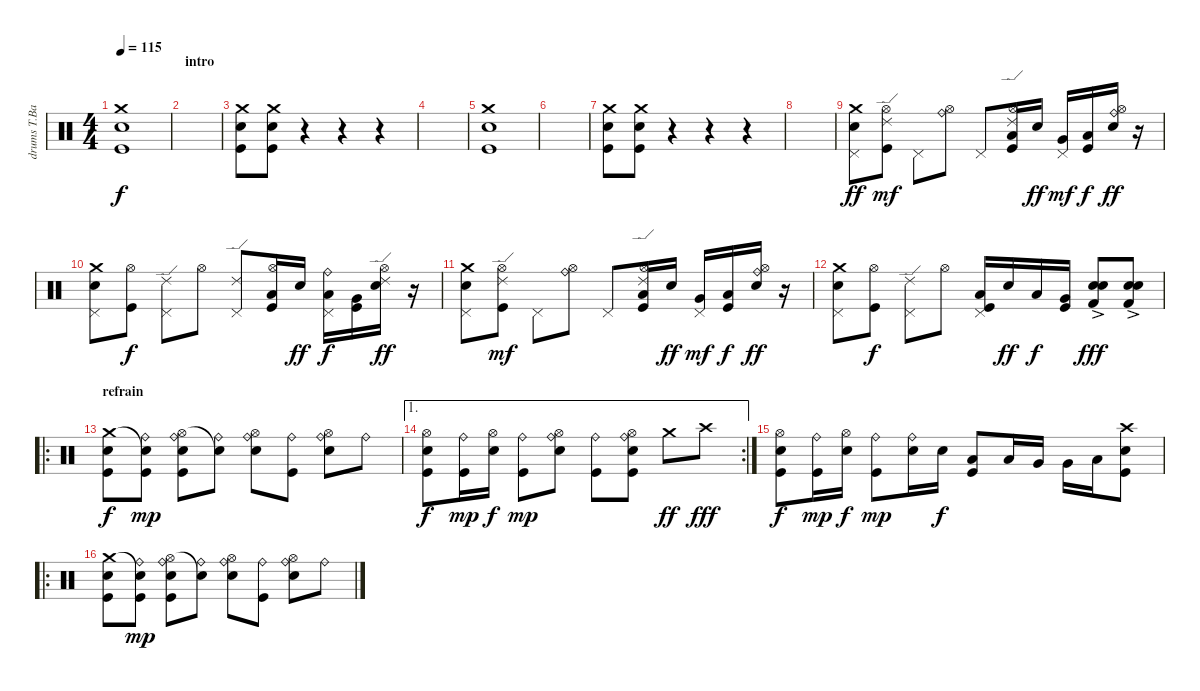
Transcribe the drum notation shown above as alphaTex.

\track ("drums T.Barker" "drums T.Ba") {instrument percussion}
\staff {score}
\articulation defaults
\ts (4 4)
\tempo 115
\clef neutral
\ks c
("Crash medium (hit)" "Electric Snare (hit)" "Kick (hit)").1{dy f} |
\section ("" "intro")
|
("Crash medium (hit)" "Electric Snare (hit)" "Kick (hit)").8 ("Crash medium (hit)" "Electric Snare (hit)" "Kick (hit)").8 r.4 r.4 r.4 |
|
("Crash medium (hit)" "Electric Snare (hit)" "Kick (hit)").1 |
|
("Crash medium (hit)" "Electric Snare (hit)" "Kick (hit)").8 ("Crash medium (hit)" "Electric Snare (hit)" "Kick (hit)").8 r.4 r.4 r.4 |
|
("Crash medium (hit)" "Pedal Hi-Hat (hit)" "Electric Snare (hit)").8{dy ff} ("Ride (edge) 2" "Hi-Hat (open)" "Kick (hit)").8{dy mf} "Pedal Hi-Hat (hit)".8 ("Ride (bell)" "Hi-Hat (open)").8 "Pedal Hi-Hat (hit)".8 ("Ride (edge) 2" "Hi-Hat (open)" "Low Tom (hit)" "Kick (hit)").16 "Electric Snare (hit)".16{dy ff} ("Pedal Hi-Hat (hit)" "Very Low Tom (hit)").16{dy mf} ("Low Tom (hit)" "Kick (hit)").16{dy f} ("Ride (bell)" "Hi-Hat (open)" "Electric Snare (hit)").16{dy ff} r.16 |
("Crash medium (hit)" "Pedal Hi-Hat (hit)" "Electric Snare (hit)").8 ("Hi-Hat (open)" "Kick (hit)").8{dy f} ("Ride (edge) 2" "Pedal Hi-Hat (hit)").8 "Hi-Hat (open)".8 ("Ride (edge) 2" "Pedal Hi-Hat (hit)").8 ("Hi-Hat (open)" "Low Tom (hit)" "Kick (hit)").16 "Electric Snare (hit)".16{dy ff} ("Ride (bell)" "Pedal Hi-Hat (hit)" "Low Tom (hit)").16{dy f} ("Very Low Tom (hit)" "Kick (hit)").16 ("Ride (edge) 2" "Hi-Hat (open)" "Electric Snare (hit)").16{dy ff} r.16 |
("Crash medium (hit)" "Pedal Hi-Hat (hit)" "Electric Snare (hit)").8 ("Ride (edge) 2" "Hi-Hat (open)" "Kick (hit)").8{dy mf} "Pedal Hi-Hat (hit)".8 ("Ride (bell)" "Hi-Hat (open)").8 "Pedal Hi-Hat (hit)".8 ("Ride (edge) 2" "Hi-Hat (open)" "Low Tom (hit)" "Kick (hit)").16 "Electric Snare (hit)".16{dy ff} ("Pedal Hi-Hat (hit)" "Very Low Tom (hit)").16{dy mf} ("Low Tom (hit)" "Kick (hit)").16{dy f} ("Ride (bell)" "Hi-Hat (open)" "Electric Snare (hit)").16{dy ff} r.16 |
("Crash medium (hit)" "Pedal Hi-Hat (hit)" "Electric Snare (hit)").8 ("Hi-Hat (open)" "Kick (hit)").8{dy f} ("Ride (edge) 2" "Pedal Hi-Hat (hit)").8 "Hi-Hat (open)".8 ("Pedal Hi-Hat (hit)" "Low Tom (hit)" "Kick (hit)").16 "Electric Snare (hit)".16{dy ff} "Low Tom (hit)".16{dy f} ("Very Low Tom (hit)" "Kick (hit)").16 ("Electric Snare (hit)" "Electric Snare (hit)"{ac} "Kick (hit) 2"{ac}).8{dy fff} ("Electric Snare (hit)" "Electric Snare (hit)"{ac} "Kick (hit) 2"{ac}).8 |
\ro
\section ("" "refrain")
("Crash medium (hit)" "Electric Snare (hit)" "Kick (hit)").8{dy f} ("Snare (hit)"{t} "Ride (bell)" "Kick (hit)").8{dy mp} ("Hi-Hat (open)" "Ride (bell)" "Electric Snare (hit)" "Kick (hit)").8 ("Snare (hit)"{t} "Ride (bell)").8 ("Hi-Hat (open)" "Ride (bell)" "Electric Snare (hit)").8 ("Ride (bell)" "Kick (hit)").8 ("Hi-Hat (open)" "Ride (bell)" "Electric Snare (hit)").8 "Ride (bell)".8 |
\ae 1
\rc 2
("Hi-Hat (open)" "Electric Snare (hit)" "Kick (hit)").8{dy f} ("Ride (bell)" "Kick (hit)").16{dy mp} ("Hi-Hat (open)" "Electric Snare (hit)").16{dy f} ("Ride (bell)" "Kick (hit)").8{dy mp} ("Hi-Hat (open)" "Ride (bell)" "Electric Snare (hit)").8 ("Ride (bell)" "Kick (hit)").8 ("Hi-Hat (open)" "Ride (bell)" "Electric Snare (hit)" "Kick (hit)").8 "Crash medium (hit)".8{dy ff} "Crash high (hit)".8{dy fff} |
("Hi-Hat (open)" "Electric Snare (hit)" "Kick (hit)").8{dy f} ("Ride (bell)" "Kick (hit)").16{dy mp} ("Hi-Hat (open)" "Electric Snare (hit)").16{dy f} ("Ride (bell)" "Kick (hit)").8{dy mp} ("Ride (bell)" "Electric Snare (hit)").16 "Electric Snare (hit)".16{dy f} ("Low Tom (hit)" "Kick (hit)").8 "Low Tom (hit)".16 "Very Low Tom (hit)".16 "Very Low Tom (hit)".16 "Low Floor Tom (hit)".16 ("Crash high (hit)" "Electric Snare (hit)" "Kick (hit)").8 |
\ro
("Crash medium (hit)" "Electric Snare (hit)" "Kick (hit)").8 ("Snare (hit)"{t} "Ride (bell)" "Kick (hit)").8{dy mp} ("Hi-Hat (open)" "Ride (bell)" "Electric Snare (hit)" "Kick (hit)").8 ("Snare (hit)"{t} "Ride (bell)").8 ("Hi-Hat (open)" "Ride (bell)" "Electric Snare (hit)").8 ("Ride (bell)" "Kick (hit)").8 ("Hi-Hat (open)" "Ride (bell)" "Electric Snare (hit)").8 "Ride (bell)".8
